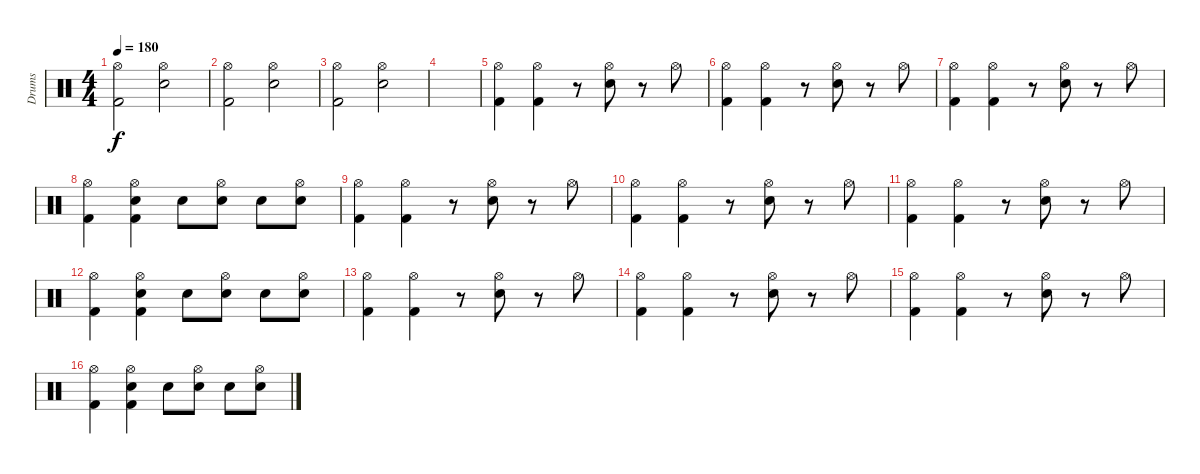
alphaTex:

\track ("Drums" "Drums") {instrument percussion}
\staff {score}
\articulation defaults
\ts (4 4)
\tempo 180
\clef neutral
\ks c
("Hi-Hat (open)" "Kick (hit) 2").2{dy f} ("Hi-Hat (open)" "Electric Snare (hit)").2 |
("Hi-Hat (open)" "Kick (hit) 2").2 ("Hi-Hat (open)" "Electric Snare (hit)").2 |
("Hi-Hat (open)" "Kick (hit) 2").2 ("Hi-Hat (open)" "Electric Snare (hit)").2 |
|
("Hi-Hat (open)" "Kick (hit) 2").4 ("Hi-Hat (open)" "Kick (hit) 2").4 r.8 ("Hi-Hat (open)" "Electric Snare (hit)").8 r.8 "Hi-Hat (open)".8 |
("Hi-Hat (open)" "Kick (hit) 2").4 ("Hi-Hat (open)" "Kick (hit) 2").4 r.8 ("Hi-Hat (open)" "Electric Snare (hit)").8 r.8 "Hi-Hat (open)".8 |
("Hi-Hat (open)" "Kick (hit) 2").4 ("Hi-Hat (open)" "Kick (hit) 2").4 r.8 ("Hi-Hat (open)" "Electric Snare (hit)").8 r.8 "Hi-Hat (open)".8 |
("Hi-Hat (open)" "Kick (hit) 2").4 ("Hi-Hat (open)" "Electric Snare (hit)" "Kick (hit) 2").4 "Electric Snare (hit)".8 ("Hi-Hat (open)" "Electric Snare (hit)").8 "Electric Snare (hit)".8 ("Hi-Hat (open)" "Electric Snare (hit)").8 |
("Hi-Hat (open)" "Kick (hit) 2").4 ("Hi-Hat (open)" "Kick (hit) 2").4 r.8 ("Hi-Hat (open)" "Electric Snare (hit)").8 r.8 "Hi-Hat (open)".8 |
("Hi-Hat (open)" "Kick (hit) 2").4 ("Hi-Hat (open)" "Kick (hit) 2").4 r.8 ("Hi-Hat (open)" "Electric Snare (hit)").8 r.8 "Hi-Hat (open)".8 |
("Hi-Hat (open)" "Kick (hit) 2").4 ("Hi-Hat (open)" "Kick (hit) 2").4 r.8 ("Hi-Hat (open)" "Electric Snare (hit)").8 r.8 "Hi-Hat (open)".8 |
("Hi-Hat (open)" "Kick (hit) 2").4 ("Hi-Hat (open)" "Electric Snare (hit)" "Kick (hit) 2").4 "Electric Snare (hit)".8 ("Hi-Hat (open)" "Electric Snare (hit)").8 "Electric Snare (hit)".8 ("Hi-Hat (open)" "Electric Snare (hit)").8 |
("Hi-Hat (open)" "Kick (hit) 2").4 ("Hi-Hat (open)" "Kick (hit) 2").4 r.8 ("Hi-Hat (open)" "Electric Snare (hit)").8 r.8 "Hi-Hat (open)".8 |
("Hi-Hat (open)" "Kick (hit) 2").4 ("Hi-Hat (open)" "Kick (hit) 2").4 r.8 ("Hi-Hat (open)" "Electric Snare (hit)").8 r.8 "Hi-Hat (open)".8 |
("Hi-Hat (open)" "Kick (hit) 2").4 ("Hi-Hat (open)" "Kick (hit) 2").4 r.8 ("Hi-Hat (open)" "Electric Snare (hit)").8 r.8 "Hi-Hat (open)".8 |
("Hi-Hat (open)" "Kick (hit) 2").4 ("Hi-Hat (open)" "Electric Snare (hit)" "Kick (hit) 2").4 "Electric Snare (hit)".8 ("Hi-Hat (open)" "Electric Snare (hit)").8 "Electric Snare (hit)".8 ("Hi-Hat (open)" "Electric Snare (hit)").8
